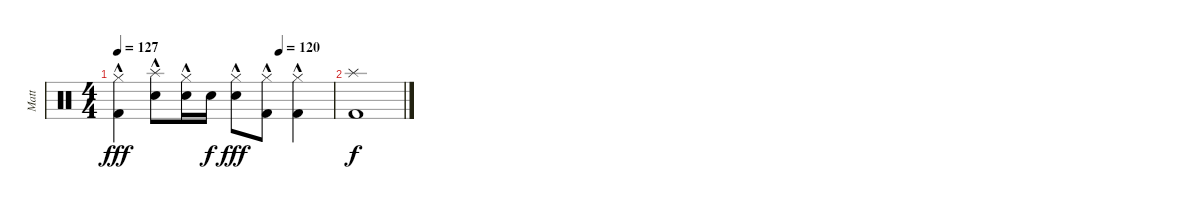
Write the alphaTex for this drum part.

\track ("Matt" "Matt") {instrument percussion}
\staff {score}
\articulation defaults
\ts (4 4)
\tempo 127
\tempo (120 0.75)
\clef neutral
\ks c
("Hi-Hat (closed)"{hac} "Kick (hit) 2").4{dy fff} ("Splash (hit)"{hac} "Snare (hit) 2").8 ("Hi-Hat (closed)"{hac} "Snare (hit) 2").16 "Snare (hit) 2".16{dy f} ("Hi-Hat (closed)"{hac} "Snare (hit) 2").8{dy fff} ("Hi-Hat (closed)"{hac} "Kick (hit) 2").8 ("Hi-Hat (closed)"{hac} "Kick (hit) 2").4 |
("Splash (hit)" "Kick (hit) 2").1{dy f}
